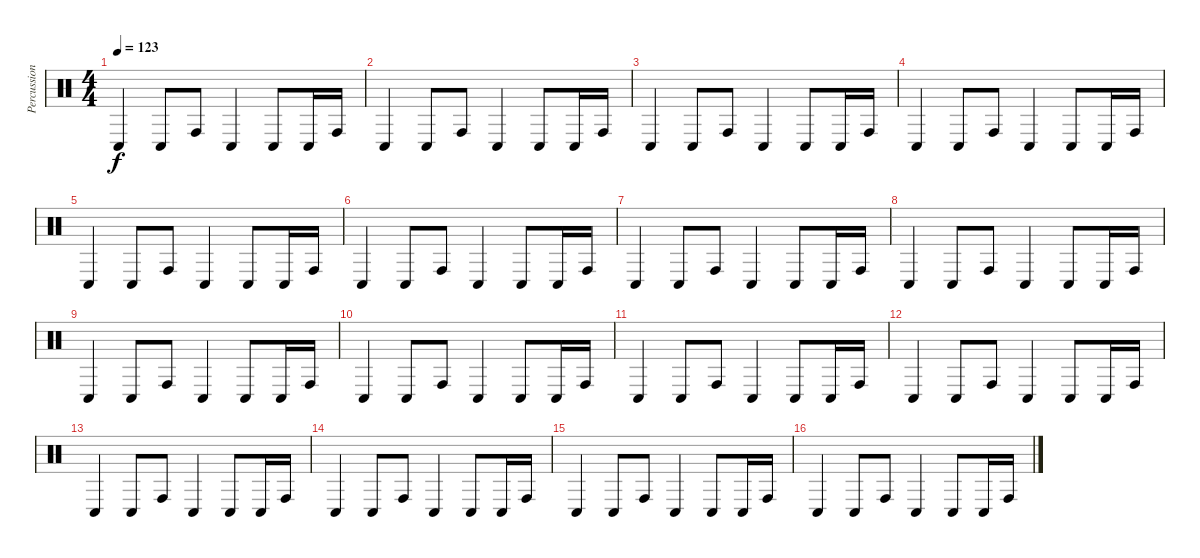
\track ("Percussion" "Percussion") {instrument percussion}
\staff {score}
\articulation defaults
\ts (4 4)
\tempo 123
\clef neutral
\ks c "Conga low (hit)".4{dy f} "Conga low (hit)".8 "Conga high (hit)".8 "Conga low (hit)".4 "Conga low (hit)".8 "Conga low (hit)".16 "Conga high (hit)".16
|
"Conga low (hit)".4 "Conga low (hit)".8 "Conga high (hit)".8 "Conga low (hit)".4 "Conga low (hit)".8 "Conga low (hit)".16 "Conga high (hit)".16 |
"Conga low (hit)".4 "Conga low (hit)".8 "Conga high (hit)".8 "Conga low (hit)".4 "Conga low (hit)".8 "Conga low (hit)".16 "Conga high (hit)".16 |
"Conga low (hit)".4 "Conga low (hit)".8 "Conga high (hit)".8 "Conga low (hit)".4 "Conga low (hit)".8 "Conga low (hit)".16 "Conga high (hit)".16 |
"Conga low (hit)".4 "Conga low (hit)".8 "Conga high (hit)".8 "Conga low (hit)".4 "Conga low (hit)".8 "Conga low (hit)".16 "Conga high (hit)".16 |
"Conga low (hit)".4 "Conga low (hit)".8 "Conga high (hit)".8 "Conga low (hit)".4 "Conga low (hit)".8 "Conga low (hit)".16 "Conga high (hit)".16 |
"Conga low (hit)".4 "Conga low (hit)".8 "Conga high (hit)".8 "Conga low (hit)".4 "Conga low (hit)".8 "Conga low (hit)".16 "Conga high (hit)".16 |
"Conga low (hit)".4 "Conga low (hit)".8 "Conga high (hit)".8 "Conga low (hit)".4 "Conga low (hit)".8 "Conga low (hit)".16 "Conga high (hit)".16 |
"Conga low (hit)".4 "Conga low (hit)".8 "Conga high (hit)".8 "Conga low (hit)".4 "Conga low (hit)".8 "Conga low (hit)".16 "Conga high (hit)".16 |
"Conga low (hit)".4 "Conga low (hit)".8 "Conga high (hit)".8 "Conga low (hit)".4 "Conga low (hit)".8 "Conga low (hit)".16 "Conga high (hit)".16 |
"Conga low (hit)".4 "Conga low (hit)".8 "Conga high (hit)".8 "Conga low (hit)".4 "Conga low (hit)".8 "Conga low (hit)".16 "Conga high (hit)".16 |
"Conga low (hit)".4 "Conga low (hit)".8 "Conga high (hit)".8 "Conga low (hit)".4 "Conga low (hit)".8 "Conga low (hit)".16 "Conga high (hit)".16 |
"Conga low (hit)".4 "Conga low (hit)".8 "Conga high (hit)".8 "Conga low (hit)".4 "Conga low (hit)".8 "Conga low (hit)".16 "Conga high (hit)".16 |
"Conga low (hit)".4 "Conga low (hit)".8 "Conga high (hit)".8 "Conga low (hit)".4 "Conga low (hit)".8 "Conga low (hit)".16 "Conga high (hit)".16 |
"Conga low (hit)".4 "Conga low (hit)".8 "Conga high (hit)".8 "Conga low (hit)".4 "Conga low (hit)".8 "Conga low (hit)".16 "Conga high (hit)".16 |
"Conga low (hit)".4 "Conga low (hit)".8 "Conga high (hit)".8 "Conga low (hit)".4 "Conga low (hit)".8 "Conga low (hit)".16 "Conga high (hit)".16
